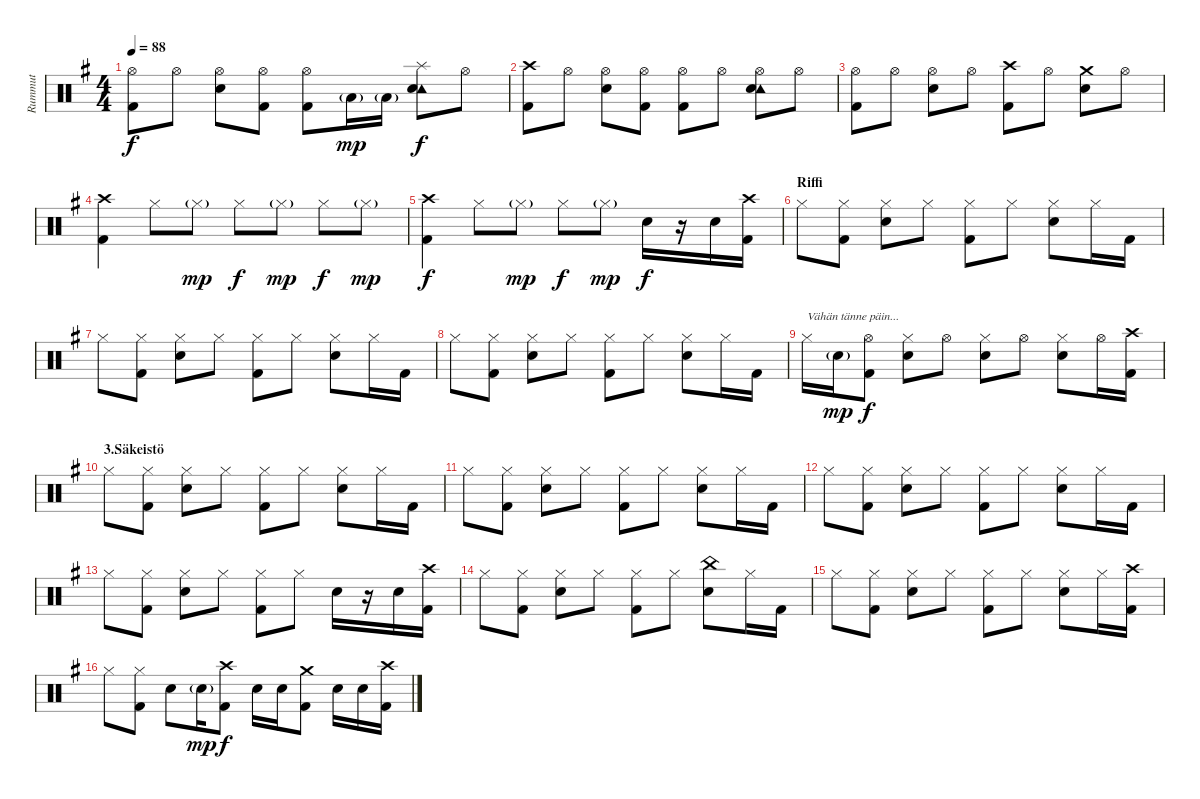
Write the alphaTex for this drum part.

\track ("Rummut" "Rummut") {instrument percussion}
\staff {score}
\articulation defaults
\ts (4 4)
\tempo 88
\clef neutral
\ks eminor
("Hi-Hat (open)" "Kick (hit) 2").8{dy f} "Hi-Hat (open)".8 ("Hi-Hat (open)" "Snare (hit) 2").8 ("Hi-Hat (open)" "Kick (hit) 2").8 ("Hi-Hat (open)" "Kick (hit) 2").8 "Low Tom (hit)"{g}.16{dy mp} "Low Tom (hit)"{g}.16 ("Splash (hit)" "Tambourine (hit)" "Snare (hit) 2").8{dy f} "Hi-Hat (open)".8 |
("Crash high (hit)" "Kick (hit) 2").8 "Hi-Hat (open)".8 ("Hi-Hat (open)" "Snare (hit) 2").8 ("Hi-Hat (open)" "Kick (hit) 2").8 ("Hi-Hat (open)" "Kick (hit) 2").8 "Hi-Hat (open)".8 ("Hi-Hat (open)" "Tambourine (hit)" "Snare (hit) 2").8 "Hi-Hat (open)".8 |
("Hi-Hat (open)" "Kick (hit) 2").8 "Hi-Hat (open)".8 ("Hi-Hat (open)" "Snare (hit) 2").8 "Hi-Hat (open)".8 ("Crash high (hit)" "Kick (hit) 2").8 "Hi-Hat (open)".8 ("Crash medium (hit)" "Snare (hit) 2").8 "Hi-Hat (open)".8 |
("Crash high (hit)" "Kick (hit) 2").4 "Hi-Hat (closed)".8 "Hi-Hat (closed)"{g}.8{dy mp} "Hi-Hat (closed)".8{dy f} "Hi-Hat (closed)"{g}.8{dy mp} "Hi-Hat (closed)".8{dy f} "Hi-Hat (closed)"{g}.8{dy mp} |
("Crash high (hit)" "Kick (hit) 2").4{dy f} "Hi-Hat (closed)".8 "Hi-Hat (closed)"{g}.8{dy mp} "Hi-Hat (closed)".8{dy f} "Hi-Hat (closed)"{g}.8{dy mp} "Snare (hit) 2".16{dy f} r.16 "Snare (hit) 2".16 ("Crash high (hit)" "Kick (hit) 2").16 |
\section ("" "Riffi")
"Hi-Hat (closed)".8 ("Hi-Hat (closed)" "Kick (hit) 2").8 ("Hi-Hat (closed)" "Snare (hit) 2").8 "Hi-Hat (closed)".8 ("Hi-Hat (closed)" "Kick (hit) 2").8 "Hi-Hat (closed)".8 ("Hi-Hat (closed)" "Snare (hit) 2").8 "Hi-Hat (closed)".16 "Kick (hit) 2".16 |
"Hi-Hat (closed)".8 ("Hi-Hat (closed)" "Kick (hit) 2").8 ("Hi-Hat (closed)" "Snare (hit) 2").8 "Hi-Hat (closed)".8 ("Hi-Hat (closed)" "Kick (hit) 2").8 "Hi-Hat (closed)".8 ("Hi-Hat (closed)" "Snare (hit) 2").8 "Hi-Hat (closed)".16 "Kick (hit) 2".16 |
"Hi-Hat (closed)".8 ("Hi-Hat (closed)" "Kick (hit) 2").8 ("Hi-Hat (closed)" "Snare (hit) 2").8 "Hi-Hat (closed)".8 ("Hi-Hat (closed)" "Kick (hit) 2").8 "Hi-Hat (closed)".8 ("Hi-Hat (closed)" "Snare (hit) 2").8 "Hi-Hat (closed)".16 "Kick (hit) 2".16 |
"Hi-Hat (closed)".16{txt "Vähän tänne päin..."} "Snare (hit) 2"{g}.16{dy mp} ("Hi-Hat (open)" "Kick (hit) 2").8{dy f} ("Hi-Hat (closed)" "Snare (hit) 2").8 "Hi-Hat (open)".8 ("Hi-Hat (closed)" "Snare (hit) 2").8 "Hi-Hat (open)".8 ("Hi-Hat (closed)" "Snare (hit) 2").8 "Hi-Hat (open)".16 ("Crash high (hit)" "Kick (hit) 2").16 |
\section ("" "3.Säkeistö")
"Hi-Hat (closed)".8 ("Hi-Hat (closed)" "Kick (hit) 2").8 ("Hi-Hat (closed)" "Snare (hit) 2").8 "Hi-Hat (closed)".8 ("Hi-Hat (closed)" "Kick (hit) 2").8 "Hi-Hat (closed)".8 ("Hi-Hat (closed)" "Snare (hit) 2").8 "Hi-Hat (closed)".16 "Kick (hit) 2".16 |
"Hi-Hat (closed)".8 ("Hi-Hat (closed)" "Kick (hit) 2").8 ("Hi-Hat (closed)" "Snare (hit) 2").8 "Hi-Hat (closed)".8 ("Hi-Hat (closed)" "Kick (hit) 2").8 "Hi-Hat (closed)".8 ("Hi-Hat (closed)" "Snare (hit) 2").8 "Hi-Hat (closed)".16 "Kick (hit) 2".16 |
"Hi-Hat (closed)".8 ("Hi-Hat (closed)" "Kick (hit) 2").8 ("Hi-Hat (closed)" "Snare (hit) 2").8 "Hi-Hat (closed)".8 ("Hi-Hat (closed)" "Kick (hit) 2").8 "Hi-Hat (closed)".8 ("Hi-Hat (closed)" "Snare (hit) 2").8 "Hi-Hat (closed)".16 "Kick (hit) 2".16 |
"Hi-Hat (closed)".8 ("Hi-Hat (closed)" "Kick (hit) 2").8 ("Hi-Hat (closed)" "Snare (hit) 2").8 "Hi-Hat (closed)".8 ("Hi-Hat (closed)" "Kick (hit) 2").8 "Hi-Hat (closed)".8 "Snare (hit) 2".16 r.16 "Snare (hit) 2".16 ("Crash high (hit)" "Kick (hit) 2").16 |
"Hi-Hat (closed)".8 ("Hi-Hat (closed)" "Kick (hit) 2").8 ("Hi-Hat (closed)" "Snare (hit) 2").8 "Hi-Hat (closed)".8 ("Hi-Hat (closed)" "Kick (hit) 2").8 "Hi-Hat (closed)".8 ("China (hit)" "Snare (hit) 2").8 "Hi-Hat (closed)".16 "Kick (hit) 2".16 |
"Hi-Hat (closed)".8 ("Hi-Hat (closed)" "Kick (hit) 2").8 ("Hi-Hat (closed)" "Snare (hit) 2").8 "Hi-Hat (closed)".8 ("Hi-Hat (closed)" "Kick (hit) 2").8 "Hi-Hat (closed)".8 ("Hi-Hat (closed)" "Snare (hit) 2").8 "Hi-Hat (closed)".16 ("Crash high (hit)" "Kick (hit) 2").16 |
"Hi-Hat (closed)".8 ("Hi-Hat (closed)" "Kick (hit) 2").8 "Snare (hit) 2".8 "Snare (hit) 2"{g}.16{dy mp} ("Crash high (hit)" "Kick (hit) 2").8{dy f} "Snare (hit) 2".16 "Snare (hit) 2".16 ("Crash medium (hit)" "Kick (hit) 2").8 "Snare (hit) 2".16 "Snare (hit) 2".16 ("Crash high (hit)" "Kick (hit) 2").16
